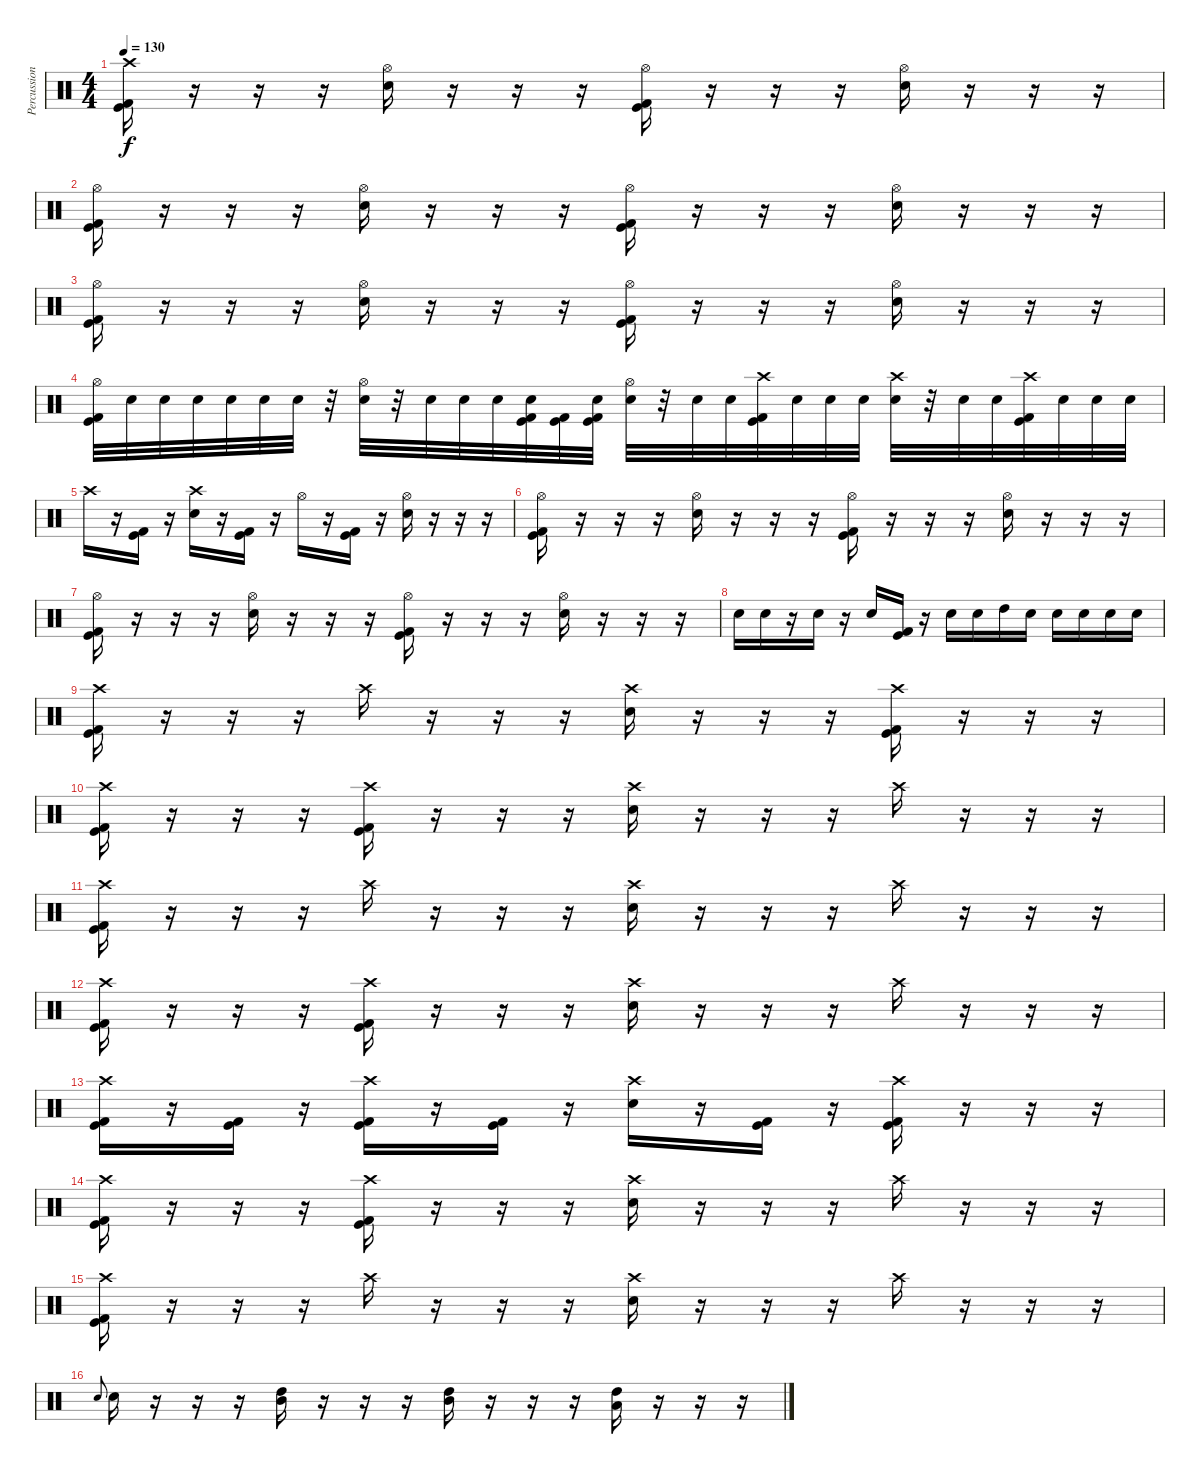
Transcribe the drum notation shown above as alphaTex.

\track ("Percussion" "Percussion") {instrument percussion}
\staff {score}
\articulation defaults
\ts (4 4)
\tempo 130
\clef neutral
\ks c
("Crash high (hit)" "Kick (hit)" "Kick (hit) 2").16{dy f} r.16 r.16 r.16 ("Hi-Hat (open)" "Electric Snare (hit)").16 r.16 r.16 r.16 ("Hi-Hat (open)" "Kick (hit)" "Kick (hit) 2").16 r.16 r.16 r.16 ("Hi-Hat (open)" "Electric Snare (hit)").16 r.16 r.16 r.16 |
("Hi-Hat (open)" "Kick (hit)" "Kick (hit) 2").16 r.16 r.16 r.16 ("Hi-Hat (open)" "Electric Snare (hit)").16 r.16 r.16 r.16 ("Hi-Hat (open)" "Kick (hit)" "Kick (hit) 2").16 r.16 r.16 r.16 ("Hi-Hat (open)" "Electric Snare (hit)").16 r.16 r.16 r.16 |
("Hi-Hat (open)" "Kick (hit)" "Kick (hit) 2").16 r.16 r.16 r.16 ("Hi-Hat (open)" "Electric Snare (hit)").16 r.16 r.16 r.16 ("Hi-Hat (open)" "Kick (hit)" "Kick (hit) 2").16 r.16 r.16 r.16 ("Hi-Hat (open)" "Electric Snare (hit)").16 r.16 r.16 r.16 |
("Hi-Hat (open)" "Kick (hit)" "Kick (hit) 2").32 "Snare (hit)".32 "Snare (hit)".32 "Snare (hit)".32 "Snare (hit)".32 "Snare (hit)".32 "Snare (hit)".32 r.32 ("Hi-Hat (open)" "Electric Snare (hit)").32 r.32 "Snare (hit)".32 "Snare (hit)".32 "Snare (hit)".32 ("Snare (hit)" "Kick (hit)" "Kick (hit) 2").32 ("Kick (hit)" "Kick (hit) 2").32 ("Snare (hit)" "Kick (hit)" "Kick (hit) 2").32 ("Hi-Hat (open)" "Electric Snare (hit)").32 r.32 "Snare (hit)".32 "Snare (hit)".32 ("Crash high (hit)" "Kick (hit)" "Kick (hit) 2").32 "Snare (hit)".32 "Snare (hit)".32 "Snare (hit)".32 ("Crash high (hit)" "Electric Snare (hit)").32 r.32 "Snare (hit)".32 "Snare (hit)".32 ("Crash high (hit)" "Kick (hit)" "Kick (hit) 2").32 "Snare (hit)".32 "Snare (hit)".32 "Snare (hit)".32 |
"Crash high (hit)".16 r.16 ("Kick (hit)" "Kick (hit) 2").16 r.16 ("Crash high (hit)" "Electric Snare (hit)").16 r.16 ("Kick (hit)" "Kick (hit) 2").16 r.16 "Hi-Hat (open)".16 r.16 ("Kick (hit)" "Kick (hit) 2").16 r.16 ("Hi-Hat (open)" "Electric Snare (hit)").16 r.16 r.16 r.16 |
("Hi-Hat (open)" "Kick (hit)" "Kick (hit) 2").16 r.16 r.16 r.16 ("Hi-Hat (open)" "Electric Snare (hit)").16 r.16 r.16 r.16 ("Hi-Hat (open)" "Kick (hit)" "Kick (hit) 2").16 r.16 r.16 r.16 ("Hi-Hat (open)" "Electric Snare (hit)").16 r.16 r.16 r.16 |
("Hi-Hat (open)" "Kick (hit)" "Kick (hit) 2").16 r.16 r.16 r.16 ("Hi-Hat (open)" "Electric Snare (hit)").16 r.16 r.16 r.16 ("Hi-Hat (open)" "Kick (hit)" "Kick (hit) 2").16 r.16 r.16 r.16 ("Hi-Hat (open)" "Electric Snare (hit)").16 r.16 r.16 r.16 |
"Electric Snare (hit)".16 "Electric Snare (hit)".16 r.16 "Electric Snare (hit)".16 r.16 "Electric Snare (hit)".16 ("Kick (hit)" "Kick (hit) 2").16 r.16 "Electric Snare (hit)".16 "Electric Snare (hit)".16 "High Tom (hit)".16 "Electric Snare (hit)".16 "Electric Snare (hit)".16 "Electric Snare (hit)".16 "Electric Snare (hit)".16 "Electric Snare (hit)".16 |
("Crash high (hit)" "Kick (hit)" "Kick (hit) 2").16 r.16 r.16 r.16 "Crash high (hit)".16 r.16 r.16 r.16 ("Crash high (hit)" "Electric Snare (hit)").16 r.16 r.16 r.16 ("Crash high (hit)" "Kick (hit)" "Kick (hit) 2").16 r.16 r.16 r.16 |
("Crash high (hit)" "Kick (hit)" "Kick (hit) 2").16 r.16 r.16 r.16 ("Crash high (hit)" "Kick (hit)" "Kick (hit) 2").16 r.16 r.16 r.16 ("Crash high (hit)" "Electric Snare (hit)").16 r.16 r.16 r.16 "Crash high (hit)".16 r.16 r.16 r.16 |
("Crash high (hit)" "Kick (hit)" "Kick (hit) 2").16 r.16 r.16 r.16 "Crash high (hit)".16 r.16 r.16 r.16 ("Crash high (hit)" "Electric Snare (hit)").16 r.16 r.16 r.16 "Crash high (hit)".16 r.16 r.16 r.16 |
("Crash high (hit)" "Kick (hit)" "Kick (hit) 2").16 r.16 r.16 r.16 ("Crash high (hit)" "Kick (hit)" "Kick (hit) 2").16 r.16 r.16 r.16 ("Crash high (hit)" "Electric Snare (hit)").16 r.16 r.16 r.16 "Crash high (hit)".16 r.16 r.16 r.16 |
("Crash high (hit)" "Kick (hit)" "Kick (hit) 2").16 r.16 ("Kick (hit)" "Kick (hit) 2").16 r.16 ("Crash high (hit)" "Kick (hit)" "Kick (hit) 2").16 r.16 ("Kick (hit)" "Kick (hit) 2").16 r.16 ("Crash high (hit)" "Electric Snare (hit)").16 r.16 ("Kick (hit)" "Kick (hit) 2").16 r.16 ("Crash high (hit)" "Kick (hit)" "Kick (hit) 2").16 r.16 r.16 r.16 |
("Crash high (hit)" "Kick (hit)" "Kick (hit) 2").16 r.16 r.16 r.16 ("Crash high (hit)" "Kick (hit)" "Kick (hit) 2").16 r.16 r.16 r.16 ("Crash high (hit)" "Electric Snare (hit)").16 r.16 r.16 r.16 "Crash high (hit)".16 r.16 r.16 r.16 |
("Crash high (hit)" "Kick (hit)" "Kick (hit) 2").16 r.16 r.16 r.16 "Crash high (hit)".16 r.16 r.16 r.16 ("Crash high (hit)" "Electric Snare (hit)").16 r.16 r.16 r.16 "Crash high (hit)".16 r.16 r.16 r.16 |
"Electric Snare (hit)".8{gr onbeat} "Electric Snare (hit)".16 r.16 r.16 r.16 ("High Tom (hit)" "Mid Tom (hit)").16 r.16 r.16 r.16 ("High Tom (hit)" "Mid Tom (hit)").16 r.16 r.16 r.16 ("High Tom (hit)" "Low Tom (hit)").16 r.16 r.16 r.16
